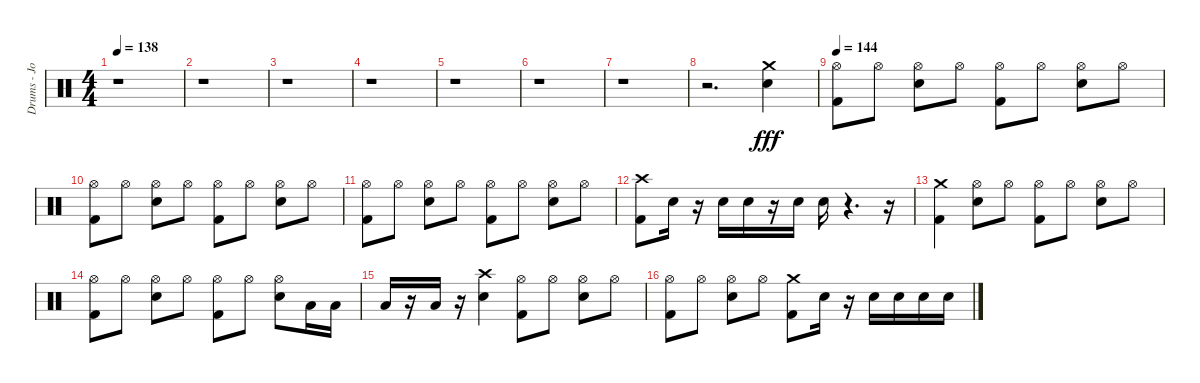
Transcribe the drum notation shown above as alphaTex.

\track ("Drums - Jord" "Drums - Jo") {instrument percussion}
\staff {score}
\articulation defaults
\ts (4 4)
\tempo 138
\clef neutral
\ks c
r.1{dy fff} |
r.1 |
r.1 |
r.1 |
r.1 |
r.1 |
r.1 |
r.2{d} ("Electric Snare (hit)" "Crash medium (hit)").4 |
\tempo 144
("Kick (hit) 2" "Hi-Hat (open)").8 "Hi-Hat (open)".8 ("Electric Snare (hit)" "Hi-Hat (open)").8 "Hi-Hat (open)".8 ("Kick (hit) 2" "Hi-Hat (open)").8 "Hi-Hat (open)".8 ("Electric Snare (hit)" "Hi-Hat (open)").8 "Hi-Hat (open)".8 |
("Kick (hit) 2" "Hi-Hat (open)").8 "Hi-Hat (open)".8 ("Electric Snare (hit)" "Hi-Hat (open)").8 "Hi-Hat (open)".8 ("Kick (hit) 2" "Hi-Hat (open)").8 "Hi-Hat (open)".8 ("Electric Snare (hit)" "Hi-Hat (open)").8 "Hi-Hat (open)".8 |
("Kick (hit) 2" "Hi-Hat (open)").8 "Hi-Hat (open)".8 ("Electric Snare (hit)" "Hi-Hat (open)").8 "Hi-Hat (open)".8 ("Kick (hit) 2" "Hi-Hat (open)").8 "Hi-Hat (open)".8 ("Electric Snare (hit)" "Hi-Hat (open)").8 "Hi-Hat (open)".8 |
("Kick (hit) 2" "Crash high (hit)").8 "Electric Snare (hit)".16 r.16 "Electric Snare (hit)".16 "Electric Snare (hit)".16 r.16 "Electric Snare (hit)".16 "Electric Snare (hit)".16 r.4{d} r.16 |
("Kick (hit) 2" "Crash medium (hit)").4 ("Electric Snare (hit)" "Hi-Hat (open)").8 "Hi-Hat (open)".8 ("Kick (hit) 2" "Hi-Hat (open)").8 "Hi-Hat (open)".8 ("Electric Snare (hit)" "Hi-Hat (open)").8 "Hi-Hat (open)".8 |
("Kick (hit) 2" "Hi-Hat (open)").8 "Hi-Hat (open)".8 ("Electric Snare (hit)" "Hi-Hat (open)").8 "Hi-Hat (open)".8 ("Kick (hit) 2" "Hi-Hat (open)").8 "Hi-Hat (open)".8 ("Electric Snare (hit)" "Hi-Hat (open)").8 "Low Tom (hit)".16 "Low Tom (hit)".16 |
"Low Tom (hit)".16 r.16 "Low Tom (hit)".16 r.16 ("Electric Snare (hit)" "Crash high (hit)").4 ("Kick (hit) 2" "Hi-Hat (open)").8 "Hi-Hat (open)".8 ("Electric Snare (hit)" "Hi-Hat (open)").8 "Hi-Hat (open)".8 |
("Kick (hit) 2" "Hi-Hat (open)").8 "Hi-Hat (open)".8 ("Electric Snare (hit)" "Hi-Hat (open)").8 "Hi-Hat (open)".8 ("Kick (hit) 2" "Crash medium (hit)").8 "Electric Snare (hit)".16 r.16 "Electric Snare (hit)".16 "Electric Snare (hit)".16 "Electric Snare (hit)".16 "Electric Snare (hit)".16
